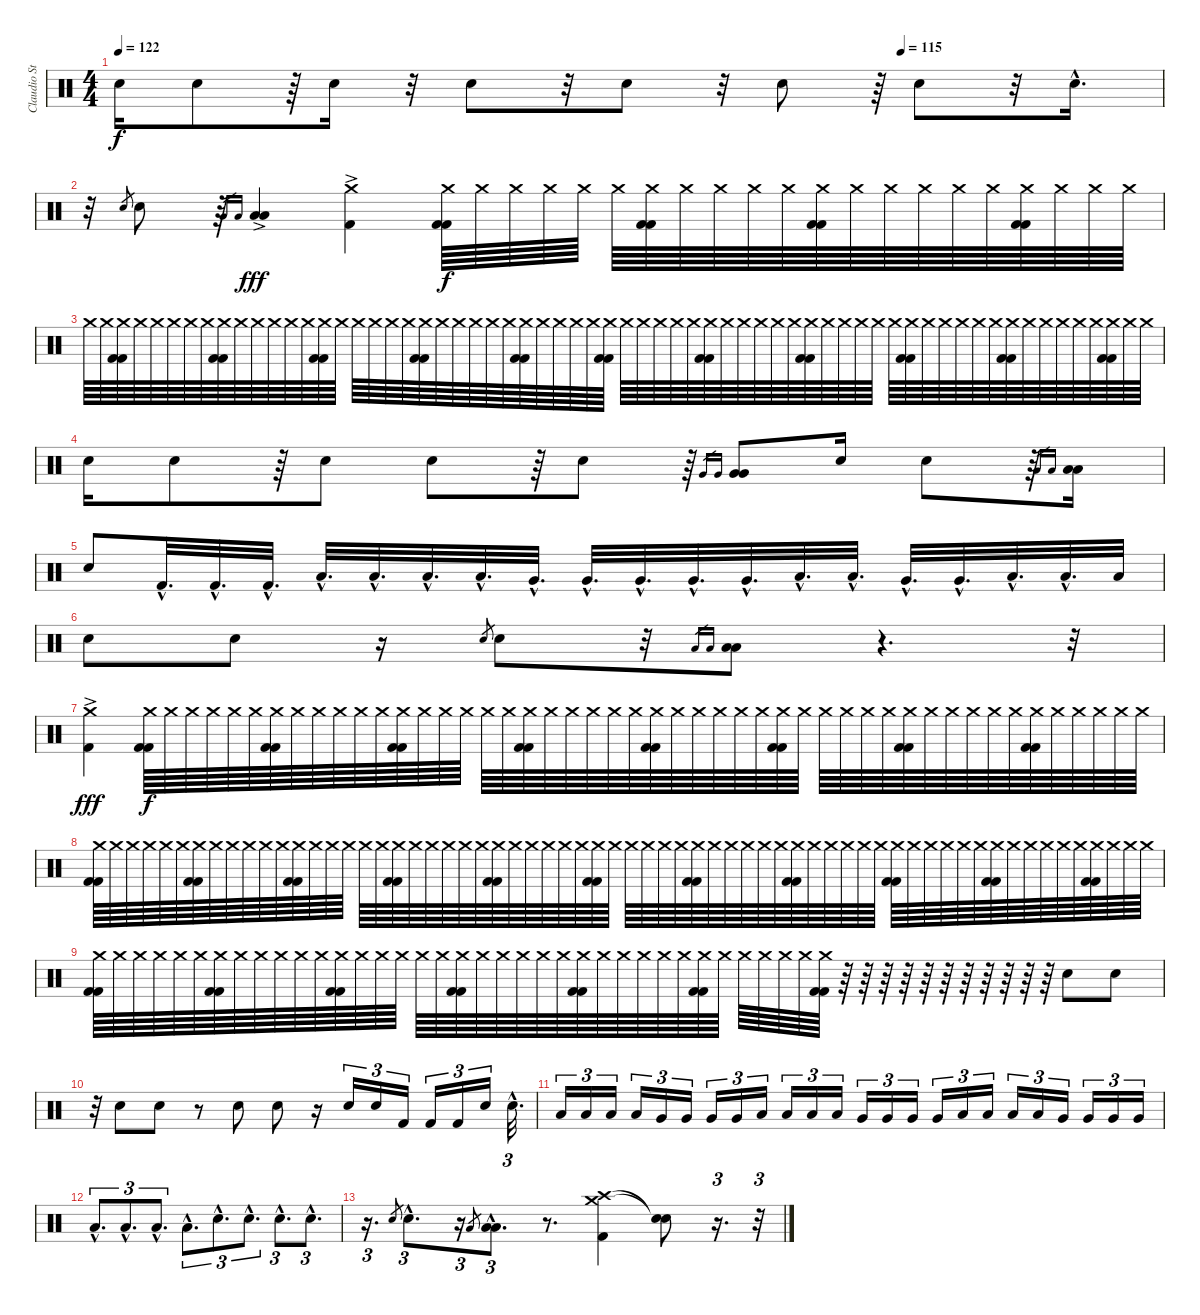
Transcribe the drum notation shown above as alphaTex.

\track ("Claudio Strunz" "Claudio St") {instrument percussion}
\staff {score}
\articulation defaults
\ts (4 4)
\tempo 122
\tempo (115 0.75)
\clef neutral
\ks c "Electric Snare (hit)".16{dy f} "Electric Snare (hit)".8
r.64 "Electric Snare (hit)".16 r.32 "Electric Snare (hit)".8 r.32 "Electric Snare (hit)".8 r.32 "Electric Snare (hit)".8 r.64 "Electric Snare (hit)".8 r.32 "Electric Snare (hit)"{hac}.16{d} |
r.32 "Electric Snare (hit)".8{gr} "Electric Snare (hit)".8 r.64 "Low Floor Tom (hit)".16{gr} "Low Floor Tom (hit)".16{gr} ("Low Tom (hit)"{ac} "Low Tom (hit)"{ac}).4{dy fff} ("Crash medium (hit)"{ac} "Kick (hit) 2").4 ("Crash medium (hit)" "Kick (hit) 2" "Kick (hit) 2").64{dy f} "Crash medium (hit)".64 "Crash medium (hit)".64 "Crash medium (hit)".64 "Crash medium (hit)".64 "Crash medium (hit)".64 ("Crash medium (hit)" "Kick (hit) 2" "Kick (hit) 2").64 "Crash medium (hit)".64 "Crash medium (hit)".64 "Crash medium (hit)".64 "Crash medium (hit)".64 ("Crash medium (hit)" "Kick (hit) 2" "Kick (hit) 2").64 "Crash medium (hit)".64 "Crash medium (hit)".64 "Crash medium (hit)".64 "Crash medium (hit)".64 "Crash medium (hit)".64 ("Crash medium (hit)" "Kick (hit) 2" "Kick (hit) 2").64 "Crash medium (hit)".64 "Crash medium (hit)".64 "Crash medium (hit)".64 |
"Crash medium (hit)".64 "Crash medium (hit)".64 ("Crash medium (hit)" "Kick (hit) 2" "Kick (hit) 2").64 "Crash medium (hit)".64 "Crash medium (hit)".64 "Crash medium (hit)".64 "Crash medium (hit)".64 "Crash medium (hit)".64 ("Crash medium (hit)" "Kick (hit) 2" "Kick (hit) 2").64 "Crash medium (hit)".64 "Crash medium (hit)".64 "Crash medium (hit)".64 "Crash medium (hit)".64 "Crash medium (hit)".64 ("Crash medium (hit)" "Kick (hit) 2" "Kick (hit) 2").64 "Crash medium (hit)".64 "Crash medium (hit)".64 "Crash medium (hit)".64 "Crash medium (hit)".64 "Crash medium (hit)".64 ("Crash medium (hit)" "Kick (hit) 2" "Kick (hit) 2").64 "Crash medium (hit)".64 "Crash medium (hit)".64 "Crash medium (hit)".64 "Crash medium (hit)".64 "Crash medium (hit)".64 ("Crash medium (hit)" "Kick (hit) 2" "Kick (hit) 2").64 "Crash medium (hit)".64 "Crash medium (hit)".64 "Crash medium (hit)".64 "Crash medium (hit)".64 ("Crash medium (hit)" "Kick (hit) 2" "Kick (hit) 2").64 "Crash medium (hit)".64 "Crash medium (hit)".64 "Crash medium (hit)".64 "Crash medium (hit)".64 "Crash medium (hit)".64 ("Crash medium (hit)" "Kick (hit) 2" "Kick (hit) 2").64 "Crash medium (hit)".64 "Crash medium (hit)".64 "Crash medium (hit)".64 "Crash medium (hit)".64 "Crash medium (hit)".64 ("Crash medium (hit)" "Kick (hit) 2" "Kick (hit) 2").64 "Crash medium (hit)".64 "Crash medium (hit)".64 "Crash medium (hit)".64 "Crash medium (hit)".64 "Crash medium (hit)".64 ("Crash medium (hit)" "Kick (hit) 2" "Kick (hit) 2").64 "Crash medium (hit)".64 "Crash medium (hit)".64 "Crash medium (hit)".64 "Crash medium (hit)".64 "Crash medium (hit)".64 ("Crash medium (hit)" "Kick (hit) 2" "Kick (hit) 2").64 "Crash medium (hit)".64 "Crash medium (hit)".64 "Crash medium (hit)".64 "Crash medium (hit)".64 "Crash medium (hit)".64 ("Crash medium (hit)" "Kick (hit) 2" "Kick (hit) 2").64 "Crash medium (hit)".64 "Crash medium (hit)".64 |
"Electric Snare (hit)".16 "Electric Snare (hit)".8 r.64 "Electric Snare (hit)".8 "Electric Snare (hit)".8 r.64 "Electric Snare (hit)".8 r.64 "Very Low Tom (hit)".16{gr} "Very Low Tom (hit)".16{gr} ("Very Low Tom (hit)" "Very Low Tom (hit)").8 "Electric Snare (hit)".16 "Electric Snare (hit)".8 r.64 "Low Tom (hit)".16{gr} "Low Tom (hit)".16{gr} ("Low Tom (hit)" "Low Tom (hit)").16 |
"Electric Snare (hit)".8 "Kick (hit) 2"{hac}.32{d} "Kick (hit) 2"{hac}.32{d} "Kick (hit) 2"{hac}.32{d} "Low Floor Tom (hit)"{hac}.32{d} "Low Floor Tom (hit)"{hac}.32{d} "Low Floor Tom (hit)"{hac}.32{d} "Low Floor Tom (hit)"{hac}.32{d} "Very Low Tom (hit)"{hac}.32{d} "Very Low Tom (hit)"{hac}.32{d} "Very Low Tom (hit)"{hac}.32{d} "Very Low Tom (hit)"{hac}.32{d} "Very Low Tom (hit)"{hac}.32{d} "Low Floor Tom (hit)"{hac}.32{d} "Low Floor Tom (hit)"{hac}.32{d} "Very Low Tom (hit)"{hac}.32{d} "Very Low Tom (hit)"{hac}.32{d} "Low Tom (hit)"{hac}.32{d} "Low Tom (hit)"{hac}.32{d} "Low Tom (hit)".32 |
"Electric Snare (hit)".8 "Electric Snare (hit)".8 r.16 "Electric Snare (hit)".8{gr} "Electric Snare (hit)".8 r.32 "Low Tom (hit)".16{gr} "Low Tom (hit)".16{gr} ("Low Tom (hit)" "Low Tom (hit)").8 r.4{d} r.32 |
("Crash medium (hit)"{ac} "Kick (hit) 2").4{dy fff} ("Crash medium (hit)" "Kick (hit) 2" "Kick (hit) 2").64{dy f} "Crash medium (hit)".64 "Crash medium (hit)".64 "Crash medium (hit)".64 "Crash medium (hit)".64 "Crash medium (hit)".64 ("Crash medium (hit)" "Kick (hit) 2" "Kick (hit) 2").64 "Crash medium (hit)".64 "Crash medium (hit)".64 "Crash medium (hit)".64 "Crash medium (hit)".64 "Crash medium (hit)".64 ("Crash medium (hit)" "Kick (hit) 2" "Kick (hit) 2").64 "Crash medium (hit)".64 "Crash medium (hit)".64 "Crash medium (hit)".64 "Crash medium (hit)".64 "Crash medium (hit)".64 ("Crash medium (hit)" "Kick (hit) 2" "Kick (hit) 2").64 "Crash medium (hit)".64 "Crash medium (hit)".64 "Crash medium (hit)".64 "Crash medium (hit)".64 "Crash medium (hit)".64 ("Crash medium (hit)" "Kick (hit) 2" "Kick (hit) 2").64 "Crash medium (hit)".64 "Crash medium (hit)".64 "Crash medium (hit)".64 "Crash medium (hit)".64 "Crash medium (hit)".64 ("Crash medium (hit)" "Kick (hit) 2" "Kick (hit) 2").64 "Crash medium (hit)".64 "Crash medium (hit)".64 "Crash medium (hit)".64 "Crash medium (hit)".64 "Crash medium (hit)".64 ("Crash medium (hit)" "Kick (hit) 2" "Kick (hit) 2").64 "Crash medium (hit)".64 "Crash medium (hit)".64 "Crash medium (hit)".64 "Crash medium (hit)".64 "Crash medium (hit)".64 ("Crash medium (hit)" "Kick (hit) 2" "Kick (hit) 2").64 "Crash medium (hit)".64 "Crash medium (hit)".64 "Crash medium (hit)".64 "Crash medium (hit)".64 "Crash medium (hit)".64 |
("Crash medium (hit)" "Kick (hit) 2" "Kick (hit) 2").64 "Crash medium (hit)".64 "Crash medium (hit)".64 "Crash medium (hit)".64 "Crash medium (hit)".64 "Crash medium (hit)".64 ("Crash medium (hit)" "Kick (hit) 2" "Kick (hit) 2").64 "Crash medium (hit)".64 "Crash medium (hit)".64 "Crash medium (hit)".64 "Crash medium (hit)".64 "Crash medium (hit)".64 ("Crash medium (hit)" "Kick (hit) 2" "Kick (hit) 2").64 "Crash medium (hit)".64 "Crash medium (hit)".64 "Crash medium (hit)".64 "Crash medium (hit)".64 "Crash medium (hit)".64 ("Crash medium (hit)" "Kick (hit) 2" "Kick (hit) 2").64 "Crash medium (hit)".64 "Crash medium (hit)".64 "Crash medium (hit)".64 "Crash medium (hit)".64 "Crash medium (hit)".64 ("Crash medium (hit)" "Kick (hit) 2" "Kick (hit) 2").64 "Crash medium (hit)".64 "Crash medium (hit)".64 "Crash medium (hit)".64 "Crash medium (hit)".64 "Crash medium (hit)".64 ("Crash medium (hit)" "Kick (hit) 2" "Kick (hit) 2").64 "Crash medium (hit)".64 "Crash medium (hit)".64 "Crash medium (hit)".64 "Crash medium (hit)".64 "Crash medium (hit)".64 ("Crash medium (hit)" "Kick (hit) 2" "Kick (hit) 2").64 "Crash medium (hit)".64 "Crash medium (hit)".64 "Crash medium (hit)".64 "Crash medium (hit)".64 "Crash medium (hit)".64 ("Crash medium (hit)" "Kick (hit) 2" "Kick (hit) 2").64 "Crash medium (hit)".64 "Crash medium (hit)".64 "Crash medium (hit)".64 "Crash medium (hit)".64 "Crash medium (hit)".64 ("Crash medium (hit)" "Kick (hit) 2" "Kick (hit) 2").64 "Crash medium (hit)".64 "Crash medium (hit)".64 "Crash medium (hit)".64 "Crash medium (hit)".64 "Crash medium (hit)".64 ("Crash medium (hit)" "Kick (hit) 2" "Kick (hit) 2").64 "Crash medium (hit)".64 "Crash medium (hit)".64 "Crash medium (hit)".64 "Crash medium (hit)".64 "Crash medium (hit)".64 ("Crash medium (hit)" "Kick (hit) 2" "Kick (hit) 2").64 "Crash medium (hit)".64 "Crash medium (hit)".64 "Crash medium (hit)".64 |
("Crash medium (hit)" "Kick (hit) 2" "Kick (hit) 2").64 "Crash medium (hit)".64 "Crash medium (hit)".64 "Crash medium (hit)".64 "Crash medium (hit)".64 "Crash medium (hit)".64 ("Crash medium (hit)" "Kick (hit) 2" "Kick (hit) 2").64 "Crash medium (hit)".64 "Crash medium (hit)".64 "Crash medium (hit)".64 "Crash medium (hit)".64 "Crash medium (hit)".64 ("Crash medium (hit)" "Kick (hit) 2" "Kick (hit) 2").64 "Crash medium (hit)".64 "Crash medium (hit)".64 "Crash medium (hit)".64 "Crash medium (hit)".64 "Crash medium (hit)".64 ("Crash medium (hit)" "Kick (hit) 2" "Kick (hit) 2").64 "Crash medium (hit)".64 "Crash medium (hit)".64 "Crash medium (hit)".64 "Crash medium (hit)".64 "Crash medium (hit)".64 ("Crash medium (hit)" "Kick (hit) 2" "Kick (hit) 2").64 "Crash medium (hit)".64 "Crash medium (hit)".64 "Crash medium (hit)".64 "Crash medium (hit)".64 "Crash medium (hit)".64 ("Crash medium (hit)" "Kick (hit) 2" "Kick (hit) 2").64 "Crash medium (hit)".64 "Crash medium (hit)".64 "Crash medium (hit)".64 "Crash medium (hit)".64 "Crash medium (hit)".64 ("Crash medium (hit)" "Kick (hit) 2" "Kick (hit) 2").64 r.64 r.64 r.64 r.64 r.64 r.64 r.64 r.64 r.64 r.64 r.64 "Electric Snare (hit)".8 "Electric Snare (hit)".8 |
r.32 "Electric Snare (hit)".8 "Electric Snare (hit)".8 r.8 "Electric Snare (hit)".8 "Electric Snare (hit)".8 r.16 "Electric Snare (hit)".16{tu (3 2)} "Electric Snare (hit)".16{tu (3 2)} "Kick (hit) 2".16{tu (3 2)} "Kick (hit) 2".16{tu (3 2)} "Kick (hit) 2".16{tu (3 2)} "Electric Snare (hit)".16{tu (3 2)} "Electric Snare (hit)"{hac}.32{d tu (3 2)} |
"Low Floor Tom (hit)".16{tu (3 2)} "Low Floor Tom (hit)".16{tu (3 2)} "Low Floor Tom (hit)".16{tu (3 2)} "Low Floor Tom (hit)".16{tu (3 2)} "Very Low Tom (hit)".16{tu (3 2)} "Very Low Tom (hit)".16{tu (3 2)} "Very Low Tom (hit)".16{tu (3 2)} "Very Low Tom (hit)".16{tu (3 2)} "Low Floor Tom (hit)".16{tu (3 2)} "Low Floor Tom (hit)".16{tu (3 2)} "Low Floor Tom (hit)".16{tu (3 2)} "Low Floor Tom (hit)".16{tu (3 2)} "Very Low Tom (hit)".16{tu (3 2)} "Very Low Tom (hit)".16{tu (3 2)} "Very Low Tom (hit)".16{tu (3 2)} "Very Low Tom (hit)".16{tu (3 2)} "Low Floor Tom (hit)".16{tu (3 2)} "Low Floor Tom (hit)".16{tu (3 2)} "Low Floor Tom (hit)".16{tu (3 2)} "Low Floor Tom (hit)".16{tu (3 2)} "Very Low Tom (hit)".16{tu (3 2)} "Very Low Tom (hit)".16{tu (3 2)} "Very Low Tom (hit)".16{tu (3 2)} "Very Low Tom (hit)".16{tu (3 2)} |
"Low Tom (hit)"{hac}.8{d tu (3 2)} "Low Tom (hit)"{hac}.8{d tu (3 2)} "Low Tom (hit)"{hac}.8{d tu (3 2)} "Low Tom (hit)"{hac}.8{d tu (3 2)} "Electric Snare (hit)"{hac}.8{d tu (3 2)} "Electric Snare (hit)"{hac}.8{d tu (3 2)} "Electric Snare (hit)"{hac}.8{d tu (3 2)} "Electric Snare (hit)"{hac}.8{d tu (3 2)} |
r.16{d tu (3 2)} "Electric Snare (hit)".8{gr} "Electric Snare (hit)"{hac}.8{d tu (3 2)} r.16{tu (3 2)} "Low Tom (hit)".8{gr} ("Low Tom (hit)"{hac} "Low Tom (hit)"{hac}).8{d tu (3 2)} r.8{d} ("Crash high (hit)" "Crash medium (hit)" "Kick (hit) 2").4 ("Snare (hit)"{t} "Snare (hit)"{t}).8 r.16{d tu (3 2)} r.32{tu (3 2)}
